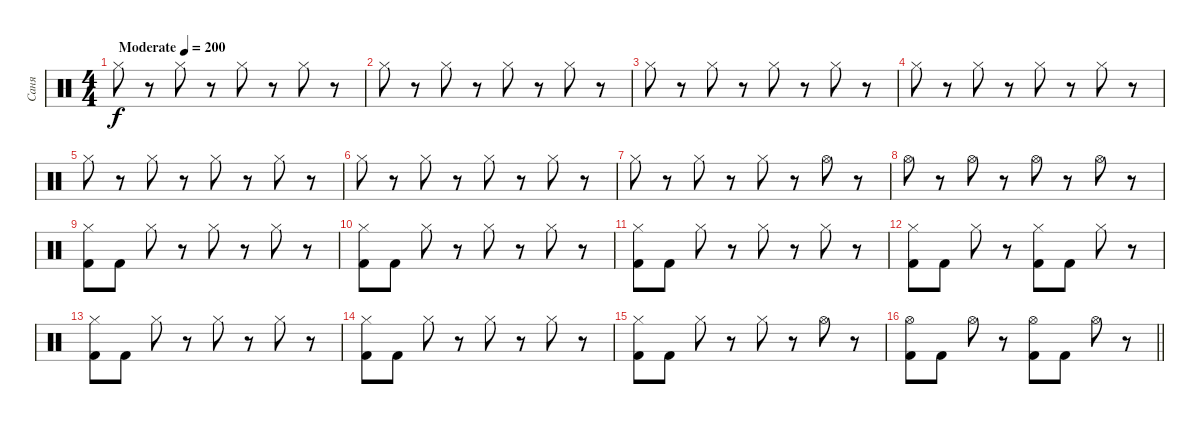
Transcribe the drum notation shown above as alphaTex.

\track ("Саня" "Саня") {instrument percussion}
\staff {score}
\articulation defaults
\ts (4 4)
\tempo (200 "Moderate")
\clef neutral
\ks c "Hi-Hat (closed)".8{dy f}
r.8 "Hi-Hat (closed)".8 r.8 "Hi-Hat (closed)".8 r.8 "Hi-Hat (closed)".8 r.8 |
"Hi-Hat (closed)".8 r.8 "Hi-Hat (closed)".8 r.8 "Hi-Hat (closed)".8 r.8 "Hi-Hat (closed)".8 r.8 |
"Hi-Hat (closed)".8 r.8 "Hi-Hat (closed)".8 r.8 "Hi-Hat (closed)".8 r.8 "Hi-Hat (closed)".8 r.8 |
"Hi-Hat (closed)".8 r.8 "Hi-Hat (closed)".8 r.8 "Hi-Hat (closed)".8 r.8 "Hi-Hat (closed)".8 r.8 |
"Hi-Hat (closed)".8 r.8 "Hi-Hat (closed)".8 r.8 "Hi-Hat (closed)".8 r.8 "Hi-Hat (closed)".8 r.8 |
"Hi-Hat (closed)".8 r.8 "Hi-Hat (closed)".8 r.8 "Hi-Hat (closed)".8 r.8 "Hi-Hat (closed)".8 r.8 |
"Hi-Hat (closed)".8 r.8 "Hi-Hat (closed)".8 r.8 "Hi-Hat (closed)".8 r.8 "Hi-Hat (open)".8 r.8 |
"Hi-Hat (open)".8 r.8 "Hi-Hat (open)".8 r.8 "Hi-Hat (open)".8 r.8 "Hi-Hat (open)".8 r.8 |
("Hi-Hat (closed)" "Kick (hit) 2").8 "Kick (hit) 2".8 "Hi-Hat (closed)".8 r.8 "Hi-Hat (closed)".8 r.8 "Hi-Hat (closed)".8 r.8 |
("Hi-Hat (closed)" "Kick (hit) 2").8 "Kick (hit) 2".8 "Hi-Hat (closed)".8 r.8 "Hi-Hat (closed)".8 r.8 "Hi-Hat (closed)".8 r.8 |
("Hi-Hat (closed)" "Kick (hit) 2").8 "Kick (hit) 2".8 "Hi-Hat (closed)".8 r.8 "Hi-Hat (closed)".8 r.8 "Hi-Hat (closed)".8 r.8 |
("Hi-Hat (closed)" "Kick (hit) 2").8 "Kick (hit) 2".8 "Hi-Hat (closed)".8 r.8 ("Hi-Hat (closed)" "Kick (hit) 2").8 "Kick (hit) 2".8 "Hi-Hat (closed)".8 r.8 |
("Hi-Hat (closed)" "Kick (hit) 2").8 "Kick (hit) 2".8 "Hi-Hat (closed)".8 r.8 "Hi-Hat (closed)".8 r.8 "Hi-Hat (closed)".8 r.8 |
("Hi-Hat (closed)" "Kick (hit) 2").8 "Kick (hit) 2".8 "Hi-Hat (closed)".8 r.8 "Hi-Hat (closed)".8 r.8 "Hi-Hat (closed)".8 r.8 |
("Hi-Hat (closed)" "Kick (hit) 2").8 "Kick (hit) 2".8 "Hi-Hat (closed)".8 r.8 "Hi-Hat (closed)".8 r.8 "Hi-Hat (open)".8 r.8 |
\barLineRight lightlight
("Hi-Hat (open)" "Kick (hit) 2").8 "Kick (hit) 2".8 "Hi-Hat (open)".8 r.8 ("Hi-Hat (open)" "Kick (hit) 2").8 "Kick (hit) 2".8 "Hi-Hat (open)".8 r.8
